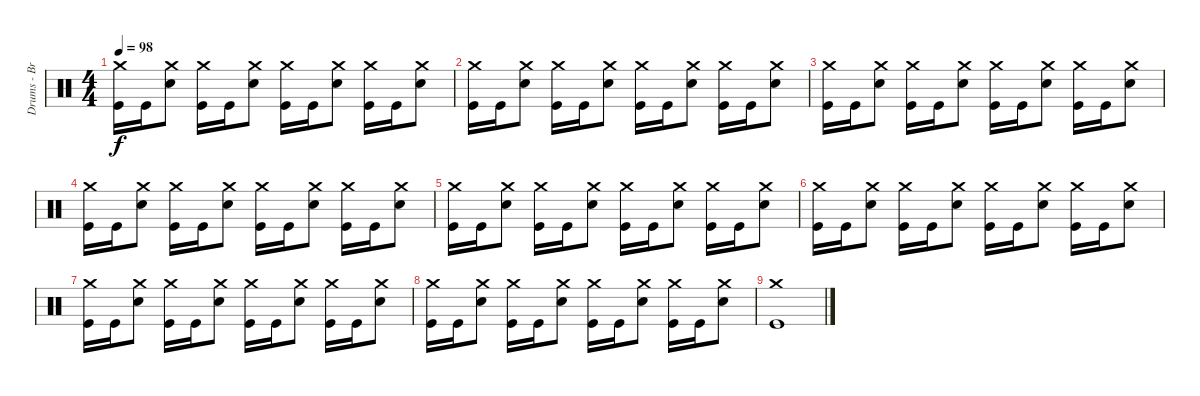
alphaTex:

\track ("Drums - Brandon" "Drums - Br") {instrument percussion}
\staff {score}
\articulation defaults
\ts (4 4)
\tempo 98
\clef neutral
\ks c
("Crash medium (hit)" "Kick (hit)").16{dy f} "Kick (hit)".16 ("Crash medium (hit)" "Snare (hit) 2").8 ("Crash medium (hit)" "Kick (hit)").16 "Kick (hit)".16 ("Crash medium (hit)" "Snare (hit) 2").8 ("Crash medium (hit)" "Kick (hit)").16 "Kick (hit)".16 ("Crash medium (hit)" "Snare (hit) 2").8 ("Crash medium (hit)" "Kick (hit)").16 "Kick (hit)".16 ("Crash medium (hit)" "Snare (hit) 2").8 |
("Crash medium (hit)" "Kick (hit)").16 "Kick (hit)".16 ("Crash medium (hit)" "Snare (hit) 2").8 ("Crash medium (hit)" "Kick (hit)").16 "Kick (hit)".16 ("Crash medium (hit)" "Snare (hit) 2").8 ("Crash medium (hit)" "Kick (hit)").16 "Kick (hit)".16 ("Crash medium (hit)" "Snare (hit) 2").8 ("Crash medium (hit)" "Kick (hit)").16 "Kick (hit)".16 ("Crash medium (hit)" "Snare (hit) 2").8 |
("Crash medium (hit)" "Kick (hit)").16 "Kick (hit)".16 ("Crash medium (hit)" "Snare (hit) 2").8 ("Crash medium (hit)" "Kick (hit)").16 "Kick (hit)".16 ("Crash medium (hit)" "Snare (hit) 2").8 ("Crash medium (hit)" "Kick (hit)").16 "Kick (hit)".16 ("Crash medium (hit)" "Snare (hit) 2").8 ("Crash medium (hit)" "Kick (hit)").16 "Kick (hit)".16 ("Crash medium (hit)" "Snare (hit) 2").8 |
("Crash medium (hit)" "Kick (hit)").16 "Kick (hit)".16 ("Crash medium (hit)" "Snare (hit) 2").8 ("Crash medium (hit)" "Kick (hit)").16 "Kick (hit)".16 ("Crash medium (hit)" "Snare (hit) 2").8 ("Crash medium (hit)" "Kick (hit)").16 "Kick (hit)".16 ("Crash medium (hit)" "Snare (hit) 2").8 ("Crash medium (hit)" "Kick (hit)").16 "Kick (hit)".16 ("Crash medium (hit)" "Snare (hit) 2").8 |
("Crash medium (hit)" "Kick (hit)").16 "Kick (hit)".16 ("Crash medium (hit)" "Snare (hit) 2").8 ("Crash medium (hit)" "Kick (hit)").16 "Kick (hit)".16 ("Crash medium (hit)" "Snare (hit) 2").8 ("Crash medium (hit)" "Kick (hit)").16 "Kick (hit)".16 ("Crash medium (hit)" "Snare (hit) 2").8 ("Crash medium (hit)" "Kick (hit)").16 "Kick (hit)".16 ("Crash medium (hit)" "Snare (hit) 2").8 |
("Crash medium (hit)" "Kick (hit)").16 "Kick (hit)".16 ("Crash medium (hit)" "Snare (hit) 2").8 ("Crash medium (hit)" "Kick (hit)").16 "Kick (hit)".16 ("Crash medium (hit)" "Snare (hit) 2").8 ("Crash medium (hit)" "Kick (hit)").16 "Kick (hit)".16 ("Crash medium (hit)" "Snare (hit) 2").8 ("Crash medium (hit)" "Kick (hit)").16 "Kick (hit)".16 ("Crash medium (hit)" "Snare (hit) 2").8 |
("Crash medium (hit)" "Kick (hit)").16 "Kick (hit)".16 ("Crash medium (hit)" "Snare (hit) 2").8 ("Crash medium (hit)" "Kick (hit)").16 "Kick (hit)".16 ("Crash medium (hit)" "Snare (hit) 2").8 ("Crash medium (hit)" "Kick (hit)").16 "Kick (hit)".16 ("Crash medium (hit)" "Snare (hit) 2").8 ("Crash medium (hit)" "Kick (hit)").16 "Kick (hit)".16 ("Crash medium (hit)" "Snare (hit) 2").8 |
("Crash medium (hit)" "Kick (hit)").16 "Kick (hit)".16 ("Crash medium (hit)" "Snare (hit) 2").8 ("Crash medium (hit)" "Kick (hit)").16 "Kick (hit)".16 ("Crash medium (hit)" "Snare (hit) 2").8 ("Crash medium (hit)" "Kick (hit)").16 "Kick (hit)".16 ("Crash medium (hit)" "Snare (hit) 2").8 ("Crash medium (hit)" "Kick (hit)").16 "Kick (hit)".16 ("Crash medium (hit)" "Snare (hit) 2").8 |
("Crash medium (hit)" "Kick (hit)").1
